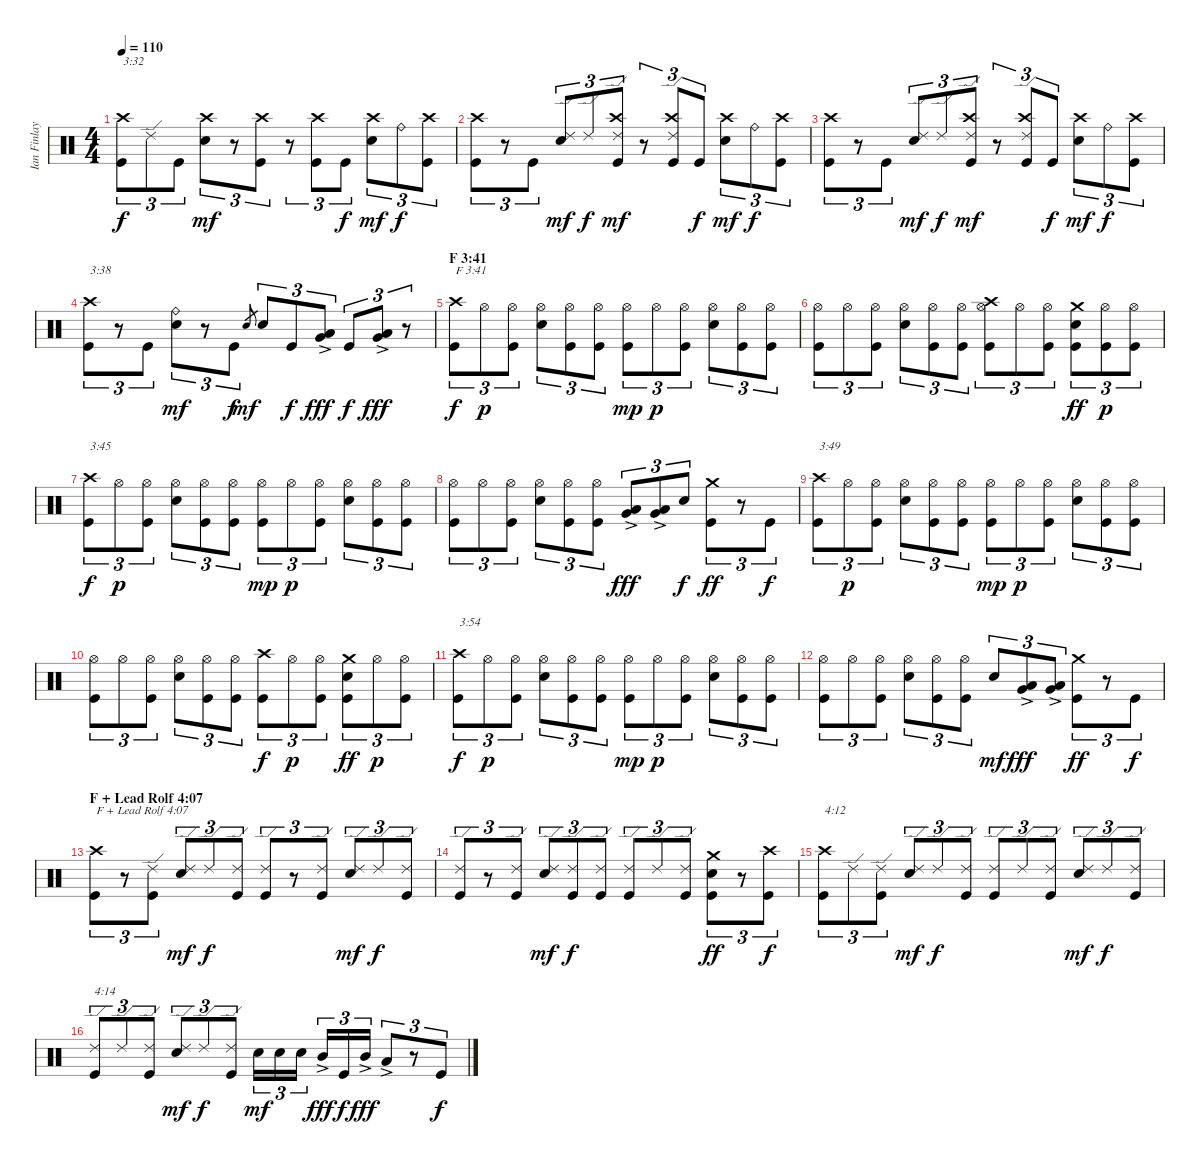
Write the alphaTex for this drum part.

\track ("Ian Finlay" "Ian Finlay") {instrument percussion}
\staff {score}
\articulation defaults
\ts (4 4)
\tempo 110
\clef neutral
\ks c
("Kick (hit)" "Crash high (hit)").8{tu (3 2) txt "3:32" dy f} "Ride (edge) 2".8{tu (3 2)} "Kick (hit)".8{tu (3 2)} ("Snare (hit) 2" "Crash high (hit)").8{tu (3 2) dy mf} r.8{tu (3 2)} ("Kick (hit)" "Crash high (hit)").8{tu (3 2)} r.8{tu (3 2)} ("Kick (hit)" "Crash high (hit)").8{tu (3 2)} "Kick (hit)".8{tu (3 2) dy f} ("Snare (hit) 2" "Crash high (hit)").8{tu (3 2) dy mf} "Ride (bell)".8{tu (3 2) dy f} ("Kick (hit)" "Crash high (hit)").8{tu (3 2)} |
("Kick (hit)" "Crash high (hit)").8{tu (3 2)} r.8{tu (3 2)} "Kick (hit)".8{tu (3 2)} ("Snare (hit) 2" "Ride (edge) 2").8{tu (3 2) dy mf} "Ride (edge) 2".8{tu (3 2) dy f} ("Kick (hit)" "Ride (edge) 2" "Crash high (hit)").8{tu (3 2) dy mf} r.8{tu (3 2)} ("Kick (hit)" "Ride (edge) 2" "Crash high (hit)").8{tu (3 2)} "Kick (hit)".8{tu (3 2) dy f} ("Snare (hit) 2" "Crash high (hit)").8{tu (3 2) dy mf} "Ride (bell)".8{tu (3 2) dy f} ("Kick (hit)" "Crash high (hit)").8{tu (3 2)} |
("Kick (hit)" "Crash high (hit)").8{tu (3 2)} r.8{tu (3 2)} "Kick (hit)".8{tu (3 2)} ("Snare (hit) 2" "Ride (edge) 2").8{tu (3 2) dy mf} "Ride (edge) 2".8{tu (3 2) dy f} ("Kick (hit)" "Ride (edge) 2" "Crash high (hit)").8{tu (3 2) dy mf} r.8{tu (3 2)} ("Kick (hit)" "Ride (edge) 2" "Crash high (hit)").8{tu (3 2)} "Kick (hit)".8{tu (3 2) dy f} ("Snare (hit) 2" "Crash high (hit)").8{tu (3 2) dy mf} "Ride (bell)".8{tu (3 2) dy f} ("Kick (hit)" "Crash high (hit)").8{tu (3 2)} |
("Kick (hit)" "Crash high (hit)").8{tu (3 2) txt "3:38"} r.8{tu (3 2)} "Kick (hit)".8{tu (3 2)} ("Snare (hit) 2" "Ride (bell)").8{tu (3 2) dy mf} r.8{tu (3 2)} "Kick (hit)".8{tu (3 2) dy f} "Snare (hit) 2".8{gr dy mf} "Snare (hit) 2".8{tu (3 2)} "Kick (hit)".8{tu (3 2) dy f} ("Very Low Tom (hit)"{ac} "Low Tom (hit)"{ac}).8{tu (3 2) dy fff} "Kick (hit)".8{tu (3 2) dy f} ("Very Low Tom (hit)"{ac} "Low Tom (hit)"{ac}).8{tu (3 2) dy fff} r.8{tu (3 2)} |
\section ("" "F 3:41")
("Kick (hit)" "Crash high (hit)").8{tu (3 2) txt "F 3:41" dy f} "Hi-Hat (open)".8{tu (3 2) dy p} ("Kick (hit)" "Hi-Hat (open)").8{tu (3 2)} ("Snare (hit) 2" "Hi-Hat (open)").8{tu (3 2)} ("Kick (hit)" "Hi-Hat (open)").8{tu (3 2)} ("Kick (hit)" "Hi-Hat (open)").8{tu (3 2)} ("Kick (hit)" "Hi-Hat (open)").8{tu (3 2) dy mp} "Hi-Hat (open)".8{tu (3 2) dy p} ("Kick (hit)" "Hi-Hat (open)").8{tu (3 2)} ("Snare (hit) 2" "Hi-Hat (open)").8{tu (3 2)} ("Kick (hit)" "Hi-Hat (open)").8{tu (3 2)} ("Kick (hit)" "Hi-Hat (open)").8{tu (3 2)} |
("Kick (hit)" "Hi-Hat (open)").8{tu (3 2)} "Hi-Hat (open)".8{tu (3 2)} ("Kick (hit)" "Hi-Hat (open)").8{tu (3 2)} ("Snare (hit) 2" "Hi-Hat (open)").8{tu (3 2)} ("Kick (hit)" "Hi-Hat (open)").8{tu (3 2)} ("Kick (hit)" "Hi-Hat (open)").8{tu (3 2)} ("Kick (hit)" "Hi-Hat (open)" "Crash high (hit)").8{tu (3 2)} "Hi-Hat (open)".8{tu (3 2)} ("Kick (hit)" "Hi-Hat (open)").8{tu (3 2)} ("Kick (hit)" "Snare (hit) 2" "Crash medium (hit)").8{tu (3 2) dy ff} ("Kick (hit)" "Hi-Hat (open)").8{tu (3 2) dy p} ("Kick (hit)" "Hi-Hat (open)").8{tu (3 2)} |
("Kick (hit)" "Crash high (hit)").8{tu (3 2) txt "3:45" dy f} "Hi-Hat (open)".8{tu (3 2) dy p} ("Kick (hit)" "Hi-Hat (open)").8{tu (3 2)} ("Snare (hit) 2" "Hi-Hat (open)").8{tu (3 2)} ("Kick (hit)" "Hi-Hat (open)").8{tu (3 2)} ("Kick (hit)" "Hi-Hat (open)").8{tu (3 2)} ("Kick (hit)" "Hi-Hat (open)").8{tu (3 2) dy mp} "Hi-Hat (open)".8{tu (3 2) dy p} ("Kick (hit)" "Hi-Hat (open)").8{tu (3 2)} ("Snare (hit) 2" "Hi-Hat (open)").8{tu (3 2)} ("Kick (hit)" "Hi-Hat (open)").8{tu (3 2)} ("Kick (hit)" "Hi-Hat (open)").8{tu (3 2)} |
("Kick (hit)" "Hi-Hat (open)").8{tu (3 2)} "Hi-Hat (open)".8{tu (3 2)} ("Kick (hit)" "Hi-Hat (open)").8{tu (3 2)} ("Snare (hit) 2" "Hi-Hat (open)").8{tu (3 2)} ("Kick (hit)" "Hi-Hat (open)").8{tu (3 2)} ("Kick (hit)" "Hi-Hat (open)").8{tu (3 2)} ("Very Low Tom (hit)"{ac} "Low Floor Tom (hit)"{ac}).8{tu (3 2) dy fff} ("Very Low Tom (hit)"{ac} "Low Tom (hit)"{ac}).8{tu (3 2)} "Snare (hit) 2".8{tu (3 2) dy f} ("Kick (hit)" "Crash medium (hit)").8{tu (3 2) dy ff} r.8{tu (3 2)} "Kick (hit)".8{tu (3 2) dy f} |
("Kick (hit)" "Crash high (hit)").8{tu (3 2) txt "3:49"} "Hi-Hat (open)".8{tu (3 2) dy p} ("Kick (hit)" "Hi-Hat (open)").8{tu (3 2)} ("Snare (hit) 2" "Hi-Hat (open)").8{tu (3 2)} ("Kick (hit)" "Hi-Hat (open)").8{tu (3 2)} ("Kick (hit)" "Hi-Hat (open)").8{tu (3 2)} ("Kick (hit)" "Hi-Hat (open)").8{tu (3 2) dy mp} "Hi-Hat (open)".8{tu (3 2) dy p} ("Kick (hit)" "Hi-Hat (open)").8{tu (3 2)} ("Snare (hit) 2" "Hi-Hat (open)").8{tu (3 2)} ("Kick (hit)" "Hi-Hat (open)").8{tu (3 2)} ("Kick (hit)" "Hi-Hat (open)").8{tu (3 2)} |
("Kick (hit)" "Hi-Hat (open)").8{tu (3 2)} "Hi-Hat (open)".8{tu (3 2)} ("Kick (hit)" "Hi-Hat (open)").8{tu (3 2)} ("Snare (hit) 2" "Hi-Hat (open)").8{tu (3 2)} ("Kick (hit)" "Hi-Hat (open)").8{tu (3 2)} ("Kick (hit)" "Hi-Hat (open)").8{tu (3 2)} ("Kick (hit)" "Crash high (hit)").8{tu (3 2) dy f} "Hi-Hat (open)".8{tu (3 2) dy p} ("Kick (hit)" "Hi-Hat (open)").8{tu (3 2)} ("Kick (hit)" "Snare (hit) 2" "Crash medium (hit)").8{tu (3 2) dy ff} "Hi-Hat (open)".8{tu (3 2) dy p} ("Kick (hit)" "Hi-Hat (open)").8{tu (3 2)} |
("Kick (hit)" "Crash high (hit)").8{tu (3 2) txt "3:54" dy f} "Hi-Hat (open)".8{tu (3 2) dy p} ("Kick (hit)" "Hi-Hat (open)").8{tu (3 2)} ("Snare (hit) 2" "Hi-Hat (open)").8{tu (3 2)} ("Kick (hit)" "Hi-Hat (open)").8{tu (3 2)} ("Kick (hit)" "Hi-Hat (open)").8{tu (3 2)} ("Kick (hit)" "Hi-Hat (open)").8{tu (3 2) dy mp} "Hi-Hat (open)".8{tu (3 2) dy p} ("Kick (hit)" "Hi-Hat (open)").8{tu (3 2)} ("Snare (hit) 2" "Hi-Hat (open)").8{tu (3 2)} ("Kick (hit)" "Hi-Hat (open)").8{tu (3 2)} ("Kick (hit)" "Hi-Hat (open)").8{tu (3 2)} |
("Kick (hit)" "Hi-Hat (open)").8{tu (3 2)} "Hi-Hat (open)".8{tu (3 2)} ("Kick (hit)" "Hi-Hat (open)").8{tu (3 2)} ("Snare (hit) 2" "Hi-Hat (open)").8{tu (3 2)} ("Kick (hit)" "Hi-Hat (open)").8{tu (3 2)} ("Kick (hit)" "Hi-Hat (open)").8{tu (3 2)} "Snare (hit) 2".8{tu (3 2) dy mf} ("Very Low Tom (hit)"{ac} "Low Floor Tom (hit)"{ac}).8{tu (3 2) dy fff} ("Very Low Tom (hit)"{ac} "Low Tom (hit)"{ac}).8{tu (3 2)} ("Kick (hit)" "Crash medium (hit)").8{tu (3 2) dy ff} r.8{tu (3 2)} "Kick (hit)".8{tu (3 2) dy f} |
\section ("" "F + Lead Rolf 4:07")
("Kick (hit)" "Crash high (hit)").8{tu (3 2) txt "F + Lead Rolf 4:07"} r.8{tu (3 2)} ("Kick (hit)" "Ride (edge) 2").8{tu (3 2)} ("Snare (hit) 2" "Ride (edge) 2").8{tu (3 2) dy mf} "Ride (edge) 2".8{tu (3 2) dy f} ("Kick (hit)" "Ride (edge) 2").8{tu (3 2)} ("Kick (hit)" "Ride (edge) 2").8{tu (3 2)} r.8{tu (3 2)} ("Kick (hit)" "Ride (edge) 2").8{tu (3 2)} ("Snare (hit) 2" "Ride (edge) 2").8{tu (3 2) dy mf} "Ride (edge) 2".8{tu (3 2) dy f} ("Kick (hit)" "Ride (edge) 2").8{tu (3 2)} |
("Kick (hit)" "Ride (edge) 2").8{tu (3 2)} r.8{tu (3 2)} ("Kick (hit)" "Ride (edge) 2").8{tu (3 2)} ("Snare (hit) 2" "Ride (edge) 2").8{tu (3 2) dy mf} ("Kick (hit)" "Ride (edge) 2").8{tu (3 2) dy f} ("Kick (hit)" "Ride (edge) 2").8{tu (3 2)} ("Kick (hit)" "Ride (edge) 2").8{tu (3 2)} "Ride (edge) 2".8{tu (3 2)} ("Kick (hit)" "Ride (edge) 2").8{tu (3 2)} ("Kick (hit)" "Snare (hit) 2" "Crash medium (hit)").8{tu (3 2) dy ff} r.8{tu (3 2)} ("Kick (hit)" "Crash high (hit)").8{tu (3 2) dy f} |
("Kick (hit)" "Crash high (hit)").8{tu (3 2) txt "4:12"} "Ride (edge) 2".8{tu (3 2)} ("Kick (hit)" "Ride (edge) 2").8{tu (3 2)} ("Snare (hit) 2" "Ride (edge) 2").8{tu (3 2) dy mf} "Ride (edge) 2".8{tu (3 2) dy f} ("Kick (hit)" "Ride (edge) 2").8{tu (3 2)} ("Kick (hit)" "Ride (edge) 2").8{tu (3 2)} "Ride (edge) 2".8{tu (3 2)} ("Kick (hit)" "Ride (edge) 2").8{tu (3 2)} ("Snare (hit) 2" "Ride (edge) 2").8{tu (3 2) dy mf} "Ride (edge) 2".8{tu (3 2) dy f} ("Kick (hit)" "Ride (edge) 2").8{tu (3 2)} |
("Kick (hit)" "Ride (edge) 2").8{tu (3 2) txt "4:14"} "Ride (edge) 2".8{tu (3 2)} ("Kick (hit)" "Ride (edge) 2").8{tu (3 2)} ("Snare (hit) 2" "Ride (edge) 2").8{tu (3 2) dy mf} "Ride (edge) 2".8{tu (3 2) dy f} ("Kick (hit)" "Ride (edge) 2").8{tu (3 2)} "Snare (hit) 2".16{tu (3 2) dy mf} "Snare (hit) 2".16{tu (3 2)} "Snare (hit) 2".16{tu (3 2)} "Mid Tom (hit)"{ac}.16{tu (3 2) dy fff} "Kick (hit)".16{tu (3 2) dy f} "Mid Tom (hit)"{ac}.16{tu (3 2) dy fff} "Low Tom (hit)"{ac}.8{tu (3 2)} r.8{tu (3 2)} "Kick (hit)".8{tu (3 2) dy f}
